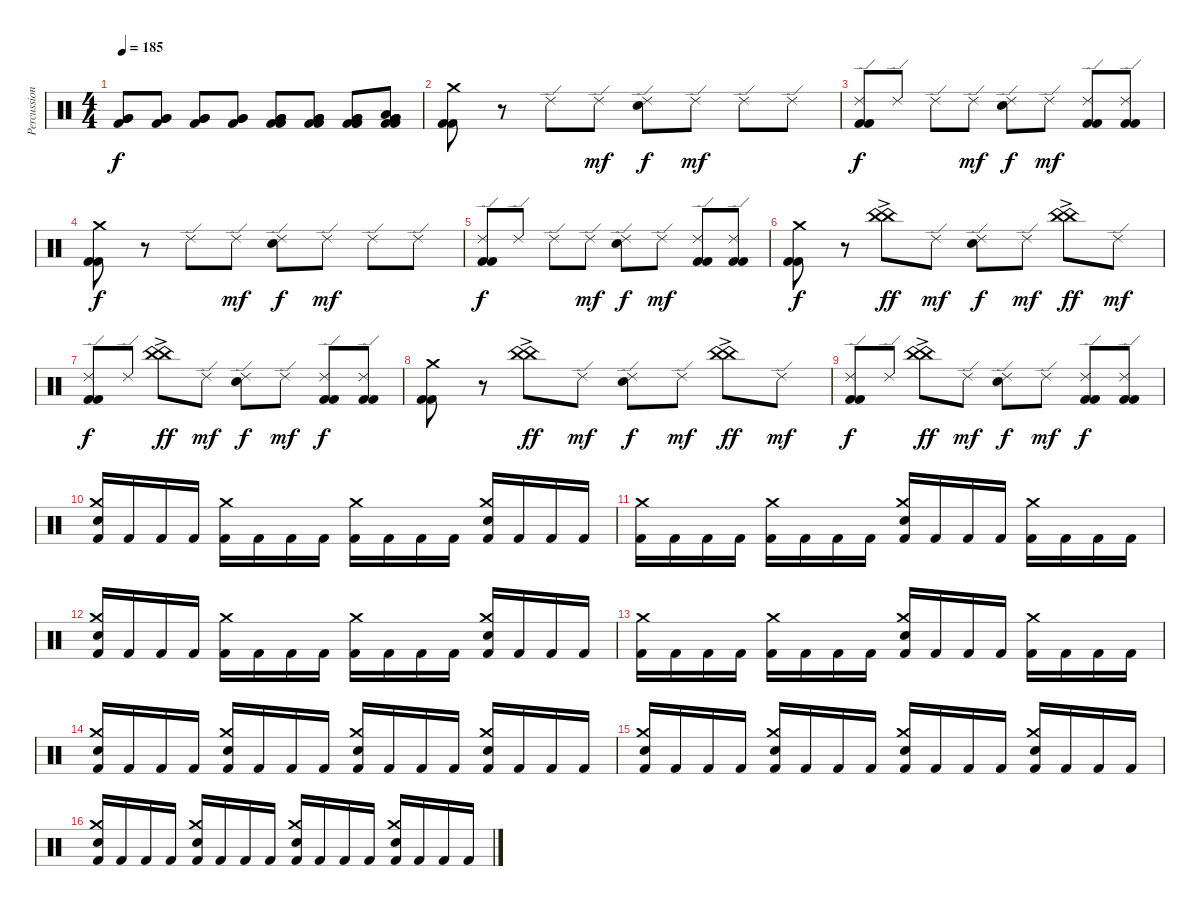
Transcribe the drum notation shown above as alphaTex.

\track ("Percussion" "Percussion") {instrument percussion}
\staff {score}
\articulation defaults
\ts (4 4)
\tempo 185
\clef neutral
\ks c
("Very Low Tom (hit)" "Very Low Tom (hit)" "Kick (hit) 2").8{dy f} ("Very Low Tom (hit)" "Very Low Tom (hit)" "Kick (hit) 2").8 ("Very Low Tom (hit)" "Very Low Tom (hit)" "Kick (hit) 2").8 ("Very Low Tom (hit)" "Very Low Tom (hit)" "Kick (hit) 2").8 ("Very Low Tom (hit)" "Very Low Tom (hit)" "Very Low Tom (hit)" "Kick (hit) 2" "Kick (hit) 2").8 ("Very Low Tom (hit)" "Very Low Tom (hit)" "Very Low Tom (hit)" "Kick (hit) 2" "Kick (hit) 2").8 ("Kick (hit) 2" "Very Low Tom (hit)" "Very Low Tom (hit)" "Very Low Tom (hit)" "Kick (hit) 2" "Kick (hit) 2").8 ("Low Floor Tom (hit)" "Very Low Tom (hit)" "Very Low Tom (hit)" "Very Low Tom (hit)" "Kick (hit) 2" "Kick (hit) 2").8 |
("Crash medium (hit)" "Kick (hit) 2" "Kick (hit) 2").8 r.8 "Ride (edge) 2".8 "Ride (edge) 2".8{dy mf} ("Ride (edge) 2" "Electric Snare (hit)").8{dy f} "Ride (edge) 2".8{dy mf} "Ride (edge) 2".8 "Ride (edge) 2".8 |
("Ride (edge) 2" "Kick (hit) 2" "Kick (hit) 2").8{dy f} "Ride (edge) 2".8 "Ride (edge) 2".8 "Ride (edge) 2".8{dy mf} ("Ride (edge) 2" "Electric Snare (hit)").8{dy f} "Ride (edge) 2".8{dy mf} ("Ride (edge) 2" "Kick (hit) 2" "Kick (hit) 2").8 ("Ride (edge) 2" "Kick (hit) 2" "Kick (hit) 2").8 |
("Crash medium (hit)" "Kick (hit) 2" "Kick (hit) 2").8{dy f} r.8 "Ride (edge) 2".8 "Ride (edge) 2".8{dy mf} ("Ride (edge) 2" "Electric Snare (hit)").8{dy f} "Ride (edge) 2".8{dy mf} "Ride (edge) 2".8 "Ride (edge) 2".8 |
("Ride (edge) 2" "Kick (hit) 2" "Kick (hit) 2").8{dy f} "Ride (edge) 2".8 "Ride (edge) 2".8 "Ride (edge) 2".8{dy mf} ("Ride (edge) 2" "Electric Snare (hit)").8{dy f} "Ride (edge) 2".8{dy mf} ("Ride (edge) 2" "Kick (hit) 2" "Kick (hit) 2").8 ("Ride (edge) 2" "Kick (hit) 2" "Kick (hit) 2").8 |
("Crash medium (hit)" "Kick (hit) 2" "Kick (hit) 2").8{dy f} r.8 ("China (hit)" "China (hit)"{ac}).8{dy ff} "Ride (edge) 2".8{dy mf} ("Ride (edge) 2" "Electric Snare (hit)").8{dy f} "Ride (edge) 2".8{dy mf} ("China (hit)" "China (hit)"{ac}).8{dy ff} "Ride (edge) 2".8{dy mf} |
("Ride (edge) 2" "Kick (hit) 2" "Kick (hit) 2").8{dy f} "Ride (edge) 2".8 ("China (hit)" "China (hit)"{ac}).8{dy ff} "Ride (edge) 2".8{dy mf} ("Ride (edge) 2" "Electric Snare (hit)").8{dy f} "Ride (edge) 2".8{dy mf} ("Ride (edge) 2" "Kick (hit) 2" "Kick (hit) 2").8{dy f} ("Ride (edge) 2" "Kick (hit) 2" "Kick (hit) 2").8 |
("Crash medium (hit)" "Kick (hit) 2" "Kick (hit) 2").8 r.8 ("China (hit)" "China (hit)"{ac}).8{dy ff} "Ride (edge) 2".8{dy mf} ("Ride (edge) 2" "Electric Snare (hit)").8{dy f} "Ride (edge) 2".8{dy mf} ("China (hit)" "China (hit)"{ac}).8{dy ff} "Ride (edge) 2".8{dy mf} |
("Ride (edge) 2" "Kick (hit) 2" "Kick (hit) 2").8{dy f} "Ride (edge) 2".8 ("China (hit)" "China (hit)"{ac}).8{dy ff} "Ride (edge) 2".8{dy mf} ("Ride (edge) 2" "Electric Snare (hit)").8{dy f} "Ride (edge) 2".8{dy mf} ("Ride (edge) 2" "Kick (hit) 2" "Kick (hit) 2").8{dy f} ("Ride (edge) 2" "Kick (hit) 2" "Kick (hit) 2").8 |
("Crash medium (hit)" "Electric Snare (hit)" "Kick (hit) 2").16 "Kick (hit) 2".16 "Kick (hit) 2".16 "Kick (hit) 2".16 ("Crash medium (hit)" "Kick (hit) 2").16 "Kick (hit) 2".16 "Kick (hit) 2".16 "Kick (hit) 2".16 ("Crash medium (hit)" "Kick (hit) 2").16 "Kick (hit) 2".16 "Kick (hit) 2".16 "Kick (hit) 2".16 ("Crash medium (hit)" "Electric Snare (hit)" "Kick (hit) 2").16 "Kick (hit) 2".16 "Kick (hit) 2".16 "Kick (hit) 2".16 |
("Crash medium (hit)" "Kick (hit) 2").16 "Kick (hit) 2".16 "Kick (hit) 2".16 "Kick (hit) 2".16 ("Crash medium (hit)" "Kick (hit) 2").16 "Kick (hit) 2".16 "Kick (hit) 2".16 "Kick (hit) 2".16 ("Crash medium (hit)" "Electric Snare (hit)" "Kick (hit) 2").16 "Kick (hit) 2".16 "Kick (hit) 2".16 "Kick (hit) 2".16 ("Crash medium (hit)" "Kick (hit) 2").16 "Kick (hit) 2".16 "Kick (hit) 2".16 "Kick (hit) 2".16 |
("Crash medium (hit)" "Electric Snare (hit)" "Kick (hit) 2").16 "Kick (hit) 2".16 "Kick (hit) 2".16 "Kick (hit) 2".16 ("Crash medium (hit)" "Kick (hit) 2").16 "Kick (hit) 2".16 "Kick (hit) 2".16 "Kick (hit) 2".16 ("Crash medium (hit)" "Kick (hit) 2").16 "Kick (hit) 2".16 "Kick (hit) 2".16 "Kick (hit) 2".16 ("Crash medium (hit)" "Electric Snare (hit)" "Kick (hit) 2").16 "Kick (hit) 2".16 "Kick (hit) 2".16 "Kick (hit) 2".16 |
("Crash medium (hit)" "Kick (hit) 2").16 "Kick (hit) 2".16 "Kick (hit) 2".16 "Kick (hit) 2".16 ("Crash medium (hit)" "Kick (hit) 2").16 "Kick (hit) 2".16 "Kick (hit) 2".16 "Kick (hit) 2".16 ("Crash medium (hit)" "Electric Snare (hit)" "Kick (hit) 2").16 "Kick (hit) 2".16 "Kick (hit) 2".16 "Kick (hit) 2".16 ("Crash medium (hit)" "Kick (hit) 2").16 "Kick (hit) 2".16 "Kick (hit) 2".16 "Kick (hit) 2".16 |
("Crash medium (hit)" "Electric Snare (hit)" "Kick (hit) 2").16 "Kick (hit) 2".16 "Kick (hit) 2".16 "Kick (hit) 2".16 ("Crash medium (hit)" "Electric Snare (hit)" "Kick (hit) 2").16 "Kick (hit) 2".16 "Kick (hit) 2".16 "Kick (hit) 2".16 ("Crash medium (hit)" "Electric Snare (hit)" "Kick (hit) 2").16 "Kick (hit) 2".16 "Kick (hit) 2".16 "Kick (hit) 2".16 ("Crash medium (hit)" "Electric Snare (hit)" "Kick (hit) 2").16 "Kick (hit) 2".16 "Kick (hit) 2".16 "Kick (hit) 2".16 |
("Crash medium (hit)" "Electric Snare (hit)" "Kick (hit) 2").16 "Kick (hit) 2".16 "Kick (hit) 2".16 "Kick (hit) 2".16 ("Crash medium (hit)" "Electric Snare (hit)" "Kick (hit) 2").16 "Kick (hit) 2".16 "Kick (hit) 2".16 "Kick (hit) 2".16 ("Crash medium (hit)" "Electric Snare (hit)" "Kick (hit) 2").16 "Kick (hit) 2".16 "Kick (hit) 2".16 "Kick (hit) 2".16 ("Crash medium (hit)" "Electric Snare (hit)" "Kick (hit) 2").16 "Kick (hit) 2".16 "Kick (hit) 2".16 "Kick (hit) 2".16 |
("Crash medium (hit)" "Electric Snare (hit)" "Kick (hit) 2").16 "Kick (hit) 2".16 "Kick (hit) 2".16 "Kick (hit) 2".16 ("Crash medium (hit)" "Electric Snare (hit)" "Kick (hit) 2").16 "Kick (hit) 2".16 "Kick (hit) 2".16 "Kick (hit) 2".16 ("Crash medium (hit)" "Electric Snare (hit)" "Kick (hit) 2").16 "Kick (hit) 2".16 "Kick (hit) 2".16 "Kick (hit) 2".16 ("Crash medium (hit)" "Electric Snare (hit)" "Kick (hit) 2").16 "Kick (hit) 2".16 "Kick (hit) 2".16 "Kick (hit) 2".16
